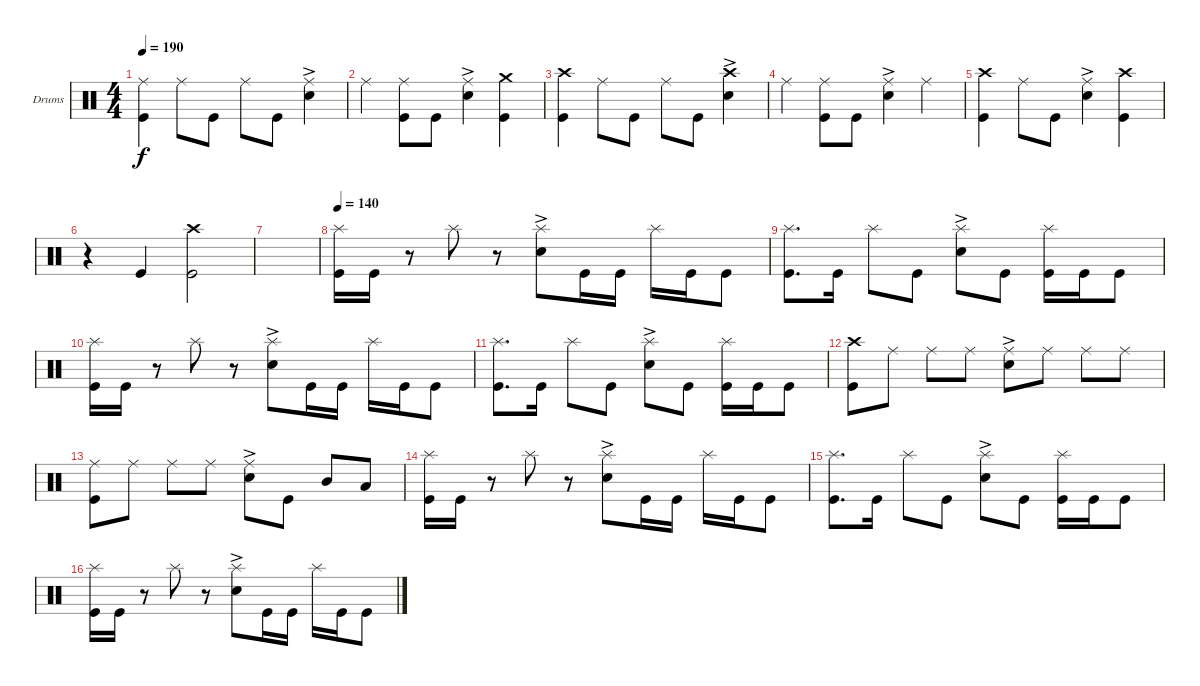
\defaultSystemsLayout 4
\bracketExtendMode groupsimilarinstruments
\firstSystemTrackNameOrientation horizontal
\otherSystemsTrackNameOrientation horizontal
\track ("Drumkit" "Drums") {instrument percussion}
\staff {score}
\articulation defaults
\ts (4 4)
\tempo 190
\clef neutral
\ks c
("Kick (hit)" "Ride (middle)").4{dy f} "Ride (middle)".8 "Kick (hit)".8 "Ride (middle)".8 "Kick (hit)".8 ("Snare (hit) 2"{ac} "Ride (middle)").4 |
"Ride (middle)".4 ("Kick (hit)" "Ride (middle)").8 "Kick (hit)".8 ("Snare (hit) 2"{ac} "Ride (middle)").4 ("Kick (hit)" "Crash medium (hit)").4 |
("Kick (hit)" "Crash high (hit)").4 "Ride (middle)".8 "Kick (hit)".8 "Ride (middle)".8 "Kick (hit)".8 ("Snare (hit) 2"{ac} "Crash high (hit)").4 |
"Ride (middle)".4 ("Kick (hit)" "Ride (middle)").8 "Kick (hit)".8 ("Snare (hit) 2"{ac} "Ride (middle)").4 "Ride (middle)".4 |
("Kick (hit)" "Crash high (hit)").4 "Ride (middle)".8 "Kick (hit)".8 ("Ride (middle)" "Snare (hit) 2"{ac}).4 ("Kick (hit)" "Crash high (hit)").4 |
r.4 "Kick (hit)".4 ("Kick (hit)" "Crash high (hit)").2 |
|
\tempo 140
("Kick (hit)" "Splash (hit)").16 "Kick (hit)".16 r.8 "Splash (hit)".8 r.8 ("Snare (hit) 2"{ac} "Splash (hit)").8 "Kick (hit)".16 "Kick (hit)".16 "Splash (hit)".16 "Kick (hit)".16 "Kick (hit)".8 |
("Kick (hit)" "Splash (hit)").8{d} "Kick (hit)".16 "Splash (hit)".8 "Kick (hit)".8 ("Snare (hit) 2"{ac} "Splash (hit)").8 "Kick (hit)".8 ("Kick (hit)" "Splash (hit)").16 "Kick (hit)".16 "Kick (hit)".8 |
("Kick (hit)" "Splash (hit)").16 "Kick (hit)".16 r.8 "Splash (hit)".8 r.8 ("Snare (hit) 2"{ac} "Splash (hit)").8 "Kick (hit)".16 "Kick (hit)".16 "Splash (hit)".16 "Kick (hit)".16 "Kick (hit)".8 |
("Kick (hit)" "Splash (hit)").8{d} "Kick (hit)".16 "Splash (hit)".8 "Kick (hit)".8 ("Snare (hit) 2"{ac} "Splash (hit)").8 "Kick (hit)".8 ("Kick (hit)" "Splash (hit)").16 "Kick (hit)".16 "Kick (hit)".8 |
("Kick (hit)" "Crash high (hit)").8 "Ride (middle)".8 "Ride (middle)".8 "Ride (middle)".8 ("Ride (middle)" "Snare (hit) 2"{ac}).8 "Ride (middle)".8 "Ride (middle)".8 "Ride (middle)".8 |
("Ride (middle)" "Kick (hit)").8 "Ride (middle)".8 "Ride (middle)".8 "Ride (middle)".8 ("Ride (middle)" "Snare (hit) 2"{ac}).8 "Kick (hit)".8 "Mid Tom (hit)".8 "Low Tom (hit)".8 |
("Kick (hit)" "Splash (hit)").16 "Kick (hit)".16 r.8 "Splash (hit)".8 r.8 ("Snare (hit) 2"{ac} "Splash (hit)").8 "Kick (hit)".16 "Kick (hit)".16 "Splash (hit)".16 "Kick (hit)".16 "Kick (hit)".8 |
("Kick (hit)" "Splash (hit)").8{d} "Kick (hit)".16 "Splash (hit)".8 "Kick (hit)".8 ("Snare (hit) 2"{ac} "Splash (hit)").8 "Kick (hit)".8 ("Kick (hit)" "Splash (hit)").16 "Kick (hit)".16 "Kick (hit)".8 |
("Kick (hit)" "Splash (hit)").16 "Kick (hit)".16 r.8 "Splash (hit)".8 r.8 ("Snare (hit) 2"{ac} "Splash (hit)").8 "Kick (hit)".16 "Kick (hit)".16 "Splash (hit)".16 "Kick (hit)".16 "Kick (hit)".8
